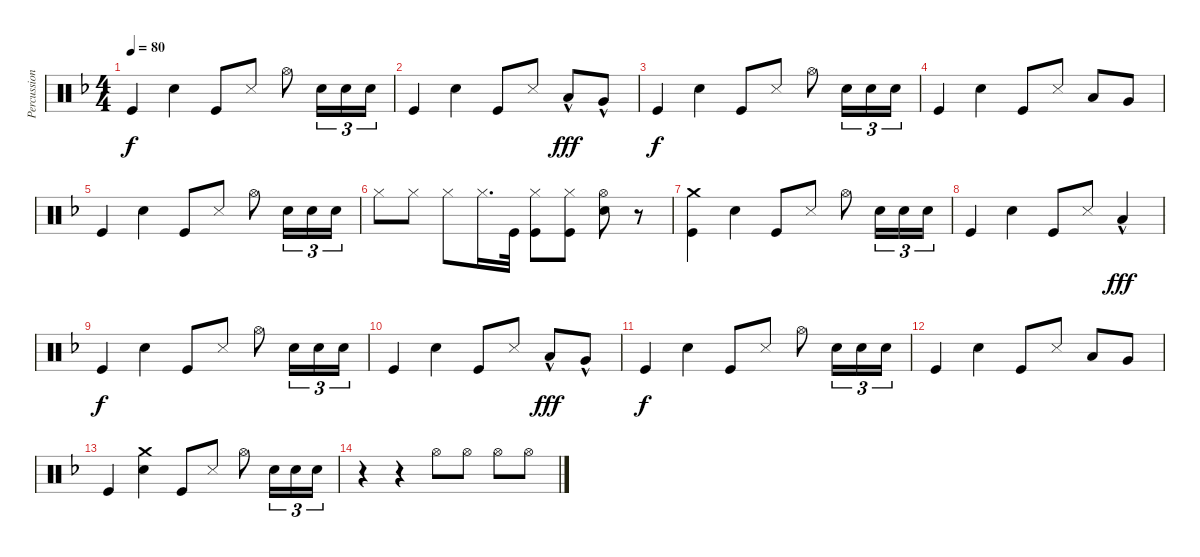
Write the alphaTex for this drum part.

\track ("Percussion" "Percussion") {instrument percussion}
\staff {score}
\articulation defaults
\ts (4 4)
\tempo 80
\clef neutral
\ks f "Kick (hit)".4{dy f} "Electric Snare (hit)".4 "Kick (hit)".8 "Snare (side stick) 3".8 "Hi-Hat (open)".8 "Electric Snare (hit)".16{tu (3 2)} "Electric Snare (hit)".16{tu (3 2)} "Electric Snare (hit)".16{tu (3 2)}
|
"Kick (hit)".4 "Electric Snare (hit)".4 "Kick (hit)".8 "Snare (side stick) 3".8 "Low Tom (hit)"{hac}.8{dy fff} "Very Low Tom (hit)"{hac}.8 |
"Kick (hit)".4{dy f} "Electric Snare (hit)".4 "Kick (hit)".8 "Snare (side stick) 3".8 "Hi-Hat (open)".8 "Electric Snare (hit)".16{tu (3 2)} "Electric Snare (hit)".16{tu (3 2)} "Electric Snare (hit)".16{tu (3 2)} |
"Kick (hit)".4 "Electric Snare (hit)".4 "Kick (hit)".8 "Snare (side stick) 3".8 "Low Tom (hit)".8 "Very Low Tom (hit)".8 |
"Kick (hit)".4 "Electric Snare (hit)".4 "Kick (hit)".8 "Snare (side stick) 3".8 "Hi-Hat (open)".8 "Electric Snare (hit)".16{tu (3 2)} "Electric Snare (hit)".16{tu (3 2)} "Electric Snare (hit)".16{tu (3 2)} |
"Hi-Hat (closed)".8 "Hi-Hat (closed)".8 "Hi-Hat (closed)".8 "Hi-Hat (closed)".16{d} "Kick (hit)".32 ("Hi-Hat (closed)" "Kick (hit)").8 ("Hi-Hat (closed)" "Kick (hit)").8 ("Hi-Hat (open)" "Electric Snare (hit)").8 r.8 |
("Crash medium (hit)" "Kick (hit)").4 "Electric Snare (hit)".4 "Kick (hit)".8 "Snare (side stick) 3".8 "Hi-Hat (open)".8 "Electric Snare (hit)".16{tu (3 2)} "Electric Snare (hit)".16{tu (3 2)} "Electric Snare (hit)".16{tu (3 2)} |
"Kick (hit)".4 "Electric Snare (hit)".4 "Kick (hit)".8 "Snare (side stick) 3".8 "Low Tom (hit)"{hac}.4{dy fff} |
"Kick (hit)".4{dy f} "Electric Snare (hit)".4 "Kick (hit)".8 "Snare (side stick) 3".8 "Hi-Hat (open)".8 "Electric Snare (hit)".16{tu (3 2)} "Electric Snare (hit)".16{tu (3 2)} "Electric Snare (hit)".16{tu (3 2)} |
"Kick (hit)".4 "Electric Snare (hit)".4 "Kick (hit)".8 "Snare (side stick) 3".8 "Low Tom (hit)"{hac}.8{dy fff} "Very Low Tom (hit)"{hac}.8 |
"Kick (hit)".4{dy f} "Electric Snare (hit)".4 "Kick (hit)".8 "Snare (side stick) 3".8 "Hi-Hat (open)".8 "Electric Snare (hit)".16{tu (3 2)} "Electric Snare (hit)".16{tu (3 2)} "Electric Snare (hit)".16{tu (3 2)} |
"Kick (hit)".4 "Electric Snare (hit)".4 "Kick (hit)".8 "Snare (side stick) 3".8 "Low Tom (hit)".8 "Very Low Tom (hit)".8 |
"Kick (hit)".4 ("Crash medium (hit)" "Electric Snare (hit)").4 "Kick (hit)".8 "Snare (side stick) 3".8 "Hi-Hat (open)".8 "Electric Snare (hit)".16{tu (3 2)} "Electric Snare (hit)".16{tu (3 2)} "Electric Snare (hit)".16{tu (3 2)} |
r.4{volume 0} r.4{volume 13} "Hi-Hat (open)".8 "Hi-Hat (open)".8 "Hi-Hat (open)".8 "Hi-Hat (open)".8
